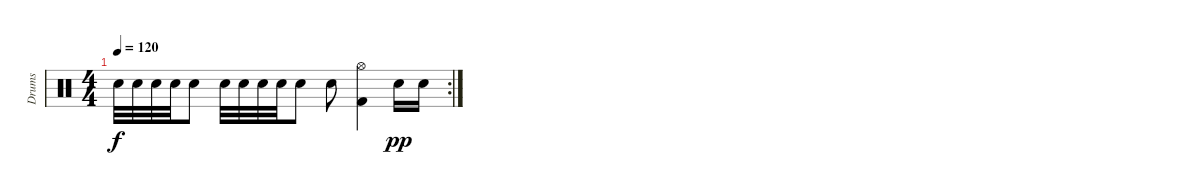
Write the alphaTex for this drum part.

\track ("Drums" "Drums") {instrument percussion}
\staff {score}
\articulation defaults
\rc 2
\ts (4 4)
\tempo 120
\clef neutral
\ks c "Snare (hit) 2".32{dy f} "Snare (hit) 2".32 "Snare (hit) 2".32 "Snare (hit) 2".32 "Snare (hit) 2".8 "Snare (hit) 2".32 "Snare (hit) 2".32 "Snare (hit) 2".32 "Snare (hit) 2".32 "Snare (hit) 2".8 "Snare (hit) 2".8
("Hi-Hat (open)" "Kick (hit) 2").4 "Snare (hit) 2".16{dy pp} "Snare (hit) 2".16
